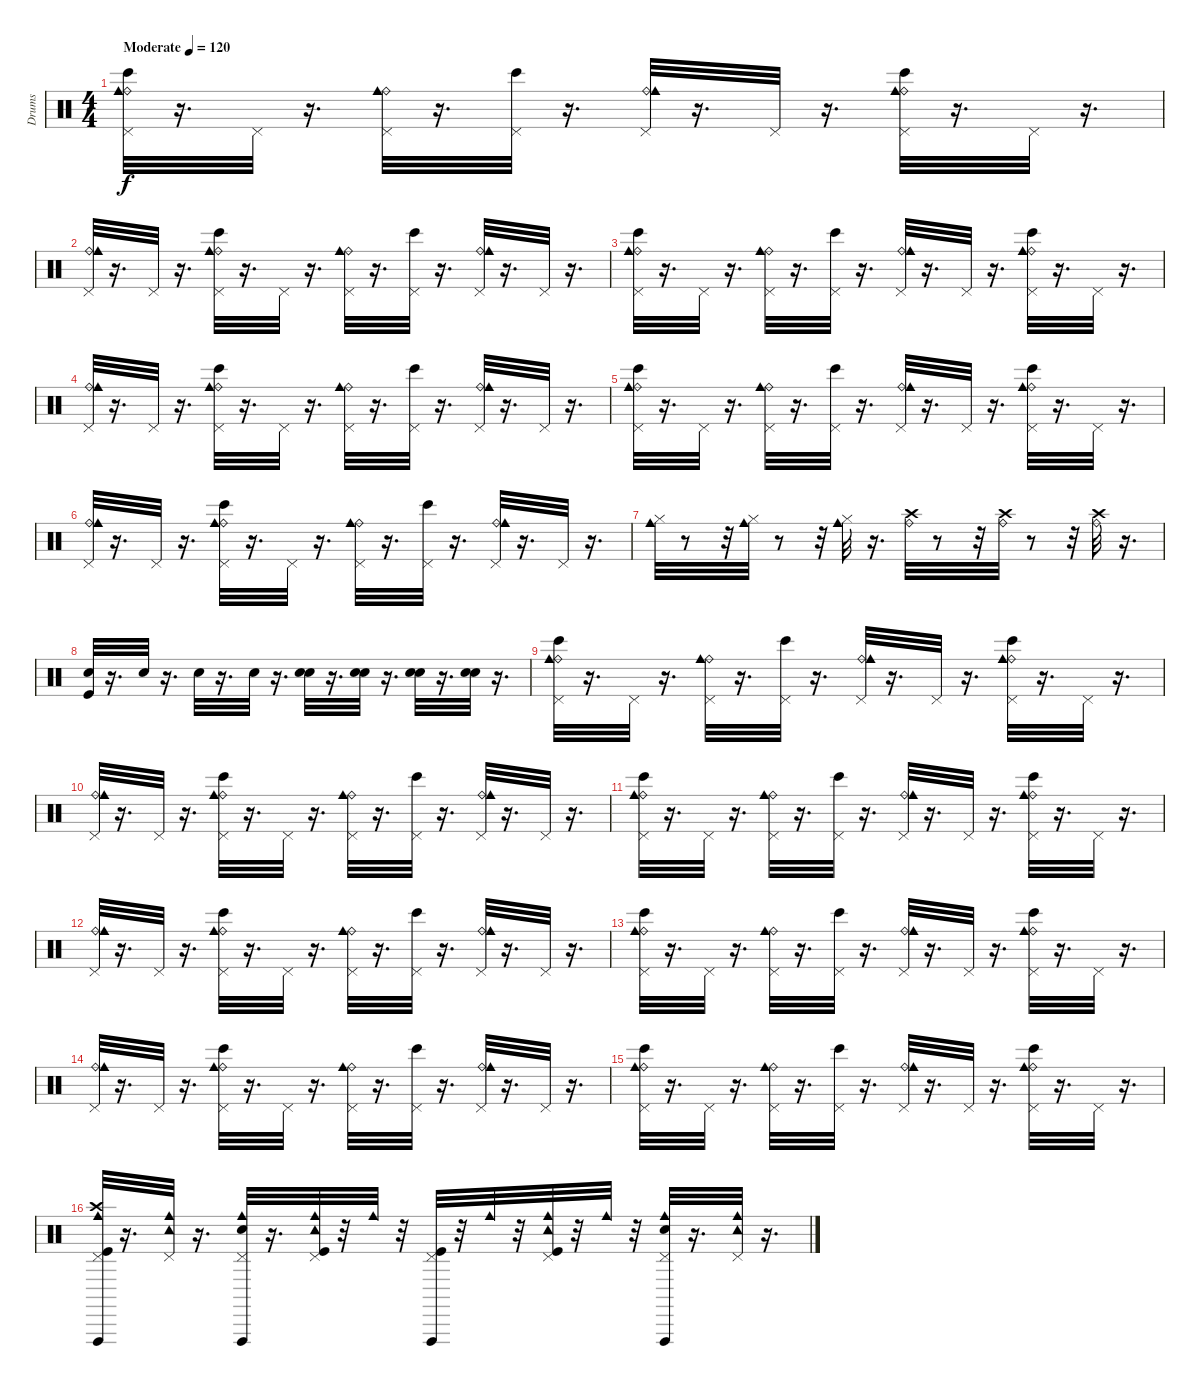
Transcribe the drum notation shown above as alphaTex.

\track ("Drums" "Drums") {instrument percussion}
\staff {score}
\articulation defaults
\ts (4 4)
\tempo (120 "Moderate")
\clef neutral
\ks c
("Bongo High (hit)" "Ride (bell)" "Cowbell medium (hit)" "Pedal Hi-Hat (hit)").32{dy f} r.16{d} "Pedal Hi-Hat (hit)".32 r.16{d} ("Ride (bell)" "Cowbell medium (hit)" "Pedal Hi-Hat (hit)").32 r.16{d} ("Bongo High (hit)" "Pedal Hi-Hat (hit)").32 r.16{d} ("Ride (bell)" "Cowbell medium (hit)" "Pedal Hi-Hat (hit)").32 r.16{d} "Pedal Hi-Hat (hit)".32 r.16{d} ("Bongo High (hit)" "Ride (bell)" "Cowbell medium (hit)" "Pedal Hi-Hat (hit)").32 r.16{d} "Pedal Hi-Hat (hit)".32 r.16{d} |
("Ride (bell)" "Cowbell medium (hit)" "Pedal Hi-Hat (hit)").32 r.16{d} "Pedal Hi-Hat (hit)".32 r.16{d} ("Bongo High (hit)" "Ride (bell)" "Cowbell medium (hit)" "Pedal Hi-Hat (hit)").32 r.16{d} "Pedal Hi-Hat (hit)".32 r.16{d} ("Ride (bell)" "Cowbell medium (hit)" "Pedal Hi-Hat (hit)").32 r.16{d} ("Bongo High (hit)" "Pedal Hi-Hat (hit)").32 r.16{d} ("Ride (bell)" "Cowbell medium (hit)" "Pedal Hi-Hat (hit)").32 r.16{d} "Pedal Hi-Hat (hit)".32 r.16{d} |
("Bongo High (hit)" "Ride (bell)" "Cowbell medium (hit)" "Pedal Hi-Hat (hit)").32 r.16{d} "Pedal Hi-Hat (hit)".32 r.16{d} ("Ride (bell)" "Cowbell medium (hit)" "Pedal Hi-Hat (hit)").32 r.16{d} ("Bongo High (hit)" "Pedal Hi-Hat (hit)").32 r.16{d} ("Ride (bell)" "Cowbell medium (hit)" "Pedal Hi-Hat (hit)").32 r.16{d} "Pedal Hi-Hat (hit)".32 r.16{d} ("Bongo High (hit)" "Ride (bell)" "Cowbell medium (hit)" "Pedal Hi-Hat (hit)").32 r.16{d} "Pedal Hi-Hat (hit)".32 r.16{d} |
("Ride (bell)" "Cowbell medium (hit)" "Pedal Hi-Hat (hit)").32 r.16{d} "Pedal Hi-Hat (hit)".32 r.16{d} ("Bongo High (hit)" "Ride (bell)" "Cowbell medium (hit)" "Pedal Hi-Hat (hit)").32 r.16{d} "Pedal Hi-Hat (hit)".32 r.16{d} ("Ride (bell)" "Cowbell medium (hit)" "Pedal Hi-Hat (hit)").32 r.16{d} ("Bongo High (hit)" "Pedal Hi-Hat (hit)").32 r.16{d} ("Ride (bell)" "Cowbell medium (hit)" "Pedal Hi-Hat (hit)").32 r.16{d} "Pedal Hi-Hat (hit)".32 r.16{d} |
("Bongo High (hit)" "Ride (bell)" "Cowbell medium (hit)" "Pedal Hi-Hat (hit)").32 r.16{d} "Pedal Hi-Hat (hit)".32 r.16{d} ("Ride (bell)" "Cowbell medium (hit)" "Pedal Hi-Hat (hit)").32 r.16{d} ("Bongo High (hit)" "Pedal Hi-Hat (hit)").32 r.16{d} ("Ride (bell)" "Cowbell medium (hit)" "Pedal Hi-Hat (hit)").32 r.16{d} "Pedal Hi-Hat (hit)".32 r.16{d} ("Bongo High (hit)" "Ride (bell)" "Cowbell medium (hit)" "Pedal Hi-Hat (hit)").32 r.16{d} "Pedal Hi-Hat (hit)".32 r.16{d} |
("Ride (bell)" "Cowbell medium (hit)" "Pedal Hi-Hat (hit)").32 r.16{d} "Pedal Hi-Hat (hit)".32 r.16{d} ("Bongo High (hit)" "Ride (bell)" "Cowbell medium (hit)" "Pedal Hi-Hat (hit)").32 r.16{d} "Pedal Hi-Hat (hit)".32 r.16{d} ("Ride (bell)" "Cowbell medium (hit)" "Pedal Hi-Hat (hit)").32 r.16{d} ("Bongo High (hit)" "Pedal Hi-Hat (hit)").32 r.16{d} ("Ride (bell)" "Cowbell medium (hit)" "Pedal Hi-Hat (hit)").32 r.16{d} "Pedal Hi-Hat (hit)".32 r.16{d} |
("Cowbell medium (hit)" "Hi-Hat (closed)").32 r.8 r.32 ("Cowbell medium (hit)" "Hi-Hat (closed)").32 r.8 r.32 ("Cowbell medium (hit)" "Hi-Hat (closed)").32 r.16{d} ("Ride (bell)" "Crash high (hit)").32 r.8 r.32 ("Ride (bell)" "Crash high (hit)").32 r.8 r.32 ("Ride (bell)" "Crash high (hit)").32 r.16{d} |
("Kick (hit)" "Electric Snare (hit)").32 r.16{d} "Electric Snare (hit)".32 r.16{d} "Electric Snare (hit)".32 r.16{d} "Electric Snare (hit)".32 r.16{d} ("Electric Snare (hit)" "Snare (hit) 2").32 r.16{d} ("Electric Snare (hit)" "Snare (hit) 2").32 r.16{d} ("Electric Snare (hit)" "Snare (hit) 2").32 r.16{d} ("Electric Snare (hit)" "Snare (hit) 2").32 r.16{d} |
("Bongo High (hit)" "Ride (bell)" "Cowbell medium (hit)" "Pedal Hi-Hat (hit)").32 r.16{d} "Pedal Hi-Hat (hit)".32 r.16{d} ("Ride (bell)" "Cowbell medium (hit)" "Pedal Hi-Hat (hit)").32 r.16{d} ("Bongo High (hit)" "Pedal Hi-Hat (hit)").32 r.16{d} ("Ride (bell)" "Cowbell medium (hit)" "Pedal Hi-Hat (hit)").32 r.16{d} "Pedal Hi-Hat (hit)".32 r.16{d} ("Bongo High (hit)" "Ride (bell)" "Cowbell medium (hit)" "Pedal Hi-Hat (hit)").32 r.16{d} "Pedal Hi-Hat (hit)".32 r.16{d} |
("Ride (bell)" "Cowbell medium (hit)" "Pedal Hi-Hat (hit)").32 r.16{d} "Pedal Hi-Hat (hit)".32 r.16{d} ("Bongo High (hit)" "Ride (bell)" "Cowbell medium (hit)" "Pedal Hi-Hat (hit)").32 r.16{d} "Pedal Hi-Hat (hit)".32 r.16{d} ("Ride (bell)" "Cowbell medium (hit)" "Pedal Hi-Hat (hit)").32 r.16{d} ("Bongo High (hit)" "Pedal Hi-Hat (hit)").32 r.16{d} ("Ride (bell)" "Cowbell medium (hit)" "Pedal Hi-Hat (hit)").32 r.16{d} "Pedal Hi-Hat (hit)".32 r.16{d} |
("Bongo High (hit)" "Ride (bell)" "Cowbell medium (hit)" "Pedal Hi-Hat (hit)").32 r.16{d} "Pedal Hi-Hat (hit)".32 r.16{d} ("Ride (bell)" "Cowbell medium (hit)" "Pedal Hi-Hat (hit)").32 r.16{d} ("Bongo High (hit)" "Pedal Hi-Hat (hit)").32 r.16{d} ("Ride (bell)" "Cowbell medium (hit)" "Pedal Hi-Hat (hit)").32 r.16{d} "Pedal Hi-Hat (hit)".32 r.16{d} ("Bongo High (hit)" "Ride (bell)" "Cowbell medium (hit)" "Pedal Hi-Hat (hit)").32 r.16{d} "Pedal Hi-Hat (hit)".32 r.16{d} |
("Ride (bell)" "Cowbell medium (hit)" "Pedal Hi-Hat (hit)").32 r.16{d} "Pedal Hi-Hat (hit)".32 r.16{d} ("Bongo High (hit)" "Ride (bell)" "Cowbell medium (hit)" "Pedal Hi-Hat (hit)").32 r.16{d} "Pedal Hi-Hat (hit)".32 r.16{d} ("Ride (bell)" "Cowbell medium (hit)" "Pedal Hi-Hat (hit)").32 r.16{d} ("Bongo High (hit)" "Pedal Hi-Hat (hit)").32 r.16{d} ("Ride (bell)" "Cowbell medium (hit)" "Pedal Hi-Hat (hit)").32 r.16{d} "Pedal Hi-Hat (hit)".32 r.16{d} |
("Bongo High (hit)" "Ride (bell)" "Cowbell medium (hit)" "Pedal Hi-Hat (hit)").32 r.16{d} "Pedal Hi-Hat (hit)".32 r.16{d} ("Ride (bell)" "Cowbell medium (hit)" "Pedal Hi-Hat (hit)").32 r.16{d} ("Bongo High (hit)" "Pedal Hi-Hat (hit)").32 r.16{d} ("Ride (bell)" "Cowbell medium (hit)" "Pedal Hi-Hat (hit)").32 r.16{d} "Pedal Hi-Hat (hit)".32 r.16{d} ("Bongo High (hit)" "Ride (bell)" "Cowbell medium (hit)" "Pedal Hi-Hat (hit)").32 r.16{d} "Pedal Hi-Hat (hit)".32 r.16{d} |
("Ride (bell)" "Cowbell medium (hit)" "Pedal Hi-Hat (hit)").32 r.16{d} "Pedal Hi-Hat (hit)".32 r.16{d} ("Bongo High (hit)" "Ride (bell)" "Cowbell medium (hit)" "Pedal Hi-Hat (hit)").32 r.16{d} "Pedal Hi-Hat (hit)".32 r.16{d} ("Ride (bell)" "Cowbell medium (hit)" "Pedal Hi-Hat (hit)").32 r.16{d} ("Bongo High (hit)" "Pedal Hi-Hat (hit)").32 r.16{d} ("Ride (bell)" "Cowbell medium (hit)" "Pedal Hi-Hat (hit)").32 r.16{d} "Pedal Hi-Hat (hit)".32 r.16{d} |
("Bongo High (hit)" "Ride (bell)" "Cowbell medium (hit)" "Pedal Hi-Hat (hit)").32 r.16{d} "Pedal Hi-Hat (hit)".32 r.16{d} ("Ride (bell)" "Cowbell medium (hit)" "Pedal Hi-Hat (hit)").32 r.16{d} ("Bongo High (hit)" "Pedal Hi-Hat (hit)").32 r.16{d} ("Ride (bell)" "Cowbell medium (hit)" "Pedal Hi-Hat (hit)").32 r.16{d} "Pedal Hi-Hat (hit)".32 r.16{d} ("Bongo High (hit)" "Ride (bell)" "Cowbell medium (hit)" "Pedal Hi-Hat (hit)").32 r.16{d} "Pedal Hi-Hat (hit)".32 r.16{d} |
("Vibraslap (hit)" "Crash high (hit)" "Cowbell medium (hit)" "Pedal Hi-Hat (hit)" "Kick (hit)").32 r.16{d} ("Tambourine (hit)" "Cowbell medium (hit)" "Pedal Hi-Hat (hit)").32 r.16{d} ("Vibraslap (hit)" "Cowbell medium (hit)" "Pedal Hi-Hat (hit)" "Snare (hit) 2").32 r.16{d} ("Tambourine (hit)" "Cowbell medium (hit)" "Pedal Hi-Hat (hit)" "Kick (hit)").32 r.32 "Cowbell medium (hit)".32 r.32 ("Vibraslap (hit)" "Pedal Hi-Hat (hit)" "Kick (hit)").32 r.32 "Cowbell medium (hit)".32 r.32 ("Cowbell medium (hit)" "Pedal Hi-Hat (hit)" "Kick (hit)" "Tambourine (hit)").32 r.32 "Cowbell medium (hit)".32 r.32 ("Vibraslap (hit)" "Cowbell medium (hit)" "Pedal Hi-Hat (hit)" "Snare (hit) 2").32 r.16{d} ("Tambourine (hit)" "Pedal Hi-Hat (hit)" "Cowbell medium (hit)").32 r.16{d}
